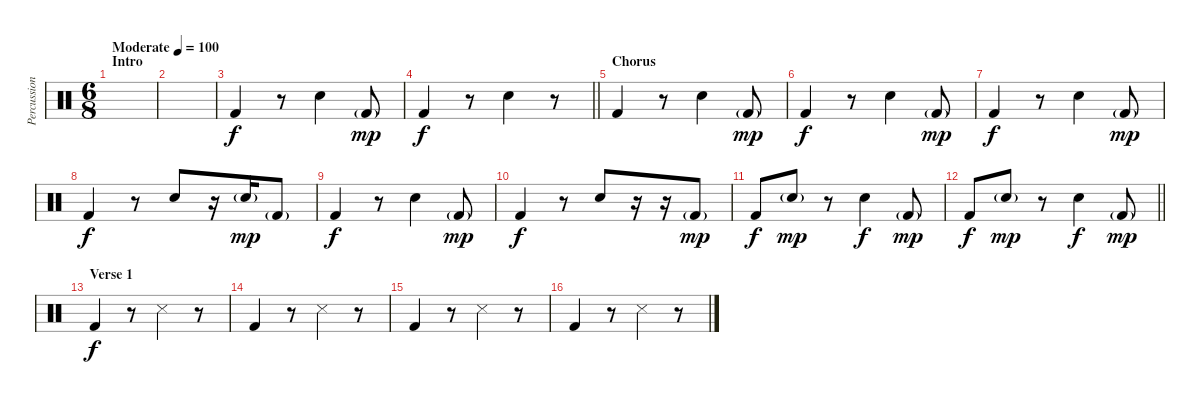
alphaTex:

\track ("Percussion" "Percussion") {instrument percussion}
\staff {score}
\articulation defaults
\ts (6 8)
\section ("" "Intro")
\tempo (100 "Moderate")
\clef neutral
\ks c
|
|
"Kick (hit) 2".4 r.8 "Snare (hit) 2".4 "Kick (hit) 2"{g}.8{dy mp} |
\barLineRight lightlight "Kick (hit) 2".4{dy f}
r.8 "Snare (hit) 2".4 r.8 |
\section ("" "Chorus")
"Kick (hit) 2".4 r.8 "Snare (hit) 2".4 "Kick (hit) 2"{g}.8{dy mp} |
"Kick (hit) 2".4{dy f} r.8 "Snare (hit) 2".4 "Kick (hit) 2"{g}.8{dy mp} |
"Kick (hit) 2".4{dy f} r.8 "Snare (hit) 2".4 "Kick (hit) 2"{g}.8{dy mp} |
"Kick (hit) 2".4{dy f} r.8 "Snare (hit) 2".8 r.16 "Snare (hit) 2"{g}.16{dy mp} "Kick (hit) 2"{g}.8 |
"Kick (hit) 2".4{dy f} r.8 "Snare (hit) 2".4 "Kick (hit) 2"{g}.8{dy mp} |
"Kick (hit) 2".4{dy f} r.8 "Snare (hit) 2".8 r.16 r.16 "Kick (hit) 2"{g}.8{dy mp} |
"Kick (hit) 2".8{dy f} "Snare (hit) 2"{g}.8{dy mp} r.8 "Snare (hit) 2".4{dy f} "Kick (hit) 2"{g}.8{dy mp} |
\barLineRight lightlight "Kick (hit) 2".8{dy f} "Snare (hit) 2"{g}.8{dy mp}
r.8 "Snare (hit) 2".4{dy f} "Kick (hit) 2"{g}.8{dy mp} |
\section ("" "Verse 1")
"Kick (hit) 2".4{dy f} r.8 "Snare (side stick) 3".4 r.8 |
"Kick (hit) 2".4 r.8 "Snare (side stick) 3".4 r.8 |
"Kick (hit) 2".4 r.8 "Snare (side stick) 3".4 r.8 |
"Kick (hit) 2".4 r.8 "Snare (side stick) 3".4 r.8
